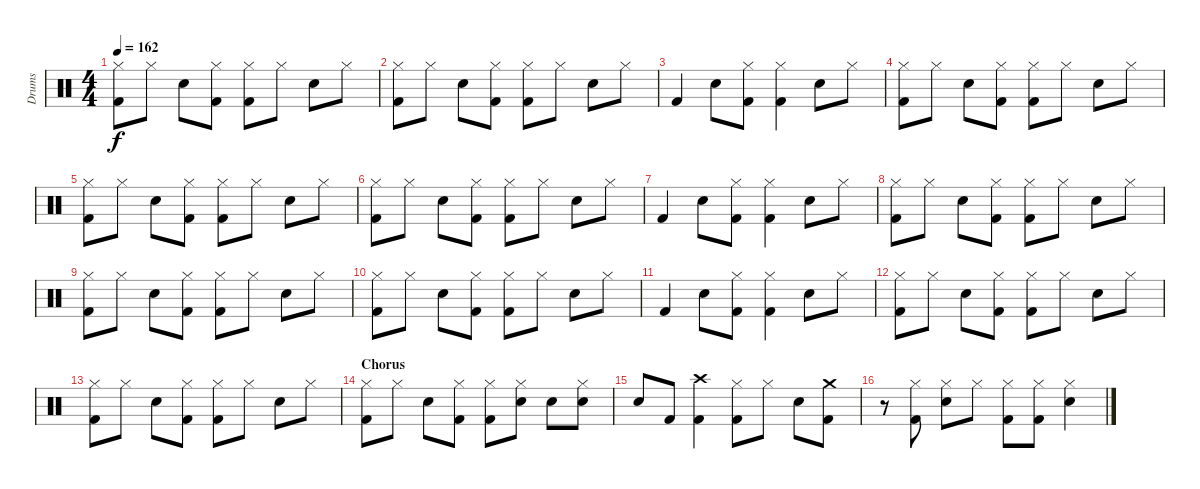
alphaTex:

\track ("Drums" "Drums") {instrument percussion}
\staff {score}
\articulation defaults
\ts (4 4)
\tempo 162
\clef neutral
\ks c
("Hi-Hat (closed)" "Kick (hit) 2").8{dy f} "Hi-Hat (closed)".8 "Snare (hit) 2".8 ("Hi-Hat (closed)" "Kick (hit) 2").8 ("Hi-Hat (closed)" "Kick (hit) 2").8 "Hi-Hat (closed)".8 "Snare (hit) 2".8 "Hi-Hat (closed)".8 |
("Hi-Hat (closed)" "Kick (hit) 2").8 "Hi-Hat (closed)".8 "Snare (hit) 2".8 ("Hi-Hat (closed)" "Kick (hit) 2").8 ("Hi-Hat (closed)" "Kick (hit) 2").8 "Hi-Hat (closed)".8 "Snare (hit) 2".8 "Hi-Hat (closed)".8 |
"Kick (hit) 2".4 "Snare (hit) 2".8 ("Hi-Hat (closed)" "Kick (hit) 2").8 ("Hi-Hat (closed)" "Kick (hit) 2").4 "Snare (hit) 2".8 "Hi-Hat (closed)".8 |
("Hi-Hat (closed)" "Kick (hit) 2").8 "Hi-Hat (closed)".8 "Snare (hit) 2".8 ("Hi-Hat (closed)" "Kick (hit) 2").8 ("Hi-Hat (closed)" "Kick (hit) 2").8 "Hi-Hat (closed)".8 "Snare (hit) 2".8 "Hi-Hat (closed)".8 |
("Hi-Hat (closed)" "Kick (hit) 2").8 "Hi-Hat (closed)".8 "Snare (hit) 2".8 ("Hi-Hat (closed)" "Kick (hit) 2").8 ("Hi-Hat (closed)" "Kick (hit) 2").8 "Hi-Hat (closed)".8 "Snare (hit) 2".8 "Hi-Hat (closed)".8 |
("Hi-Hat (closed)" "Kick (hit) 2").8 "Hi-Hat (closed)".8 "Snare (hit) 2".8 ("Hi-Hat (closed)" "Kick (hit) 2").8 ("Hi-Hat (closed)" "Kick (hit) 2").8 "Hi-Hat (closed)".8 "Snare (hit) 2".8 "Hi-Hat (closed)".8 |
"Kick (hit) 2".4 "Snare (hit) 2".8 ("Hi-Hat (closed)" "Kick (hit) 2").8 ("Hi-Hat (closed)" "Kick (hit) 2").4 "Snare (hit) 2".8 "Hi-Hat (closed)".8 |
("Hi-Hat (closed)" "Kick (hit) 2").8 "Hi-Hat (closed)".8 "Snare (hit) 2".8 ("Hi-Hat (closed)" "Kick (hit) 2").8 ("Hi-Hat (closed)" "Kick (hit) 2").8 "Hi-Hat (closed)".8 "Snare (hit) 2".8 "Hi-Hat (closed)".8 |
("Hi-Hat (closed)" "Kick (hit) 2").8 "Hi-Hat (closed)".8 "Snare (hit) 2".8 ("Hi-Hat (closed)" "Kick (hit) 2").8 ("Hi-Hat (closed)" "Kick (hit) 2").8 "Hi-Hat (closed)".8 "Snare (hit) 2".8 "Hi-Hat (closed)".8 |
("Hi-Hat (closed)" "Kick (hit) 2").8 "Hi-Hat (closed)".8 "Snare (hit) 2".8 ("Hi-Hat (closed)" "Kick (hit) 2").8 ("Hi-Hat (closed)" "Kick (hit) 2").8 "Hi-Hat (closed)".8 "Snare (hit) 2".8 "Hi-Hat (closed)".8 |
"Kick (hit) 2".4 "Snare (hit) 2".8 ("Hi-Hat (closed)" "Kick (hit) 2").8 ("Hi-Hat (closed)" "Kick (hit) 2").4 "Snare (hit) 2".8 "Hi-Hat (closed)".8 |
("Hi-Hat (closed)" "Kick (hit) 2").8 "Hi-Hat (closed)".8 "Snare (hit) 2".8 ("Hi-Hat (closed)" "Kick (hit) 2").8 ("Hi-Hat (closed)" "Kick (hit) 2").8 "Hi-Hat (closed)".8 "Snare (hit) 2".8 "Hi-Hat (closed)".8 |
("Hi-Hat (closed)" "Kick (hit) 2").8 "Hi-Hat (closed)".8 "Snare (hit) 2".8 ("Hi-Hat (closed)" "Kick (hit) 2").8 ("Hi-Hat (closed)" "Kick (hit) 2").8 "Hi-Hat (closed)".8 "Snare (hit) 2".8 "Hi-Hat (closed)".8 |
\section ("" "Chorus")
("Hi-Hat (closed)" "Kick (hit) 2").8 "Hi-Hat (closed)".8 "Snare (hit) 2".8 ("Hi-Hat (closed)" "Kick (hit) 2").8 ("Hi-Hat (closed)" "Kick (hit) 2").8 ("Hi-Hat (closed)" "Snare (hit) 2").8 "Snare (hit) 2".8 ("Hi-Hat (closed)" "Snare (hit) 2").8 |
"Snare (hit) 2".8 "Kick (hit) 2".8 ("Crash high (hit)" "Kick (hit) 2").4 ("Hi-Hat (closed)" "Kick (hit) 2").8 "Hi-Hat (closed)".8 "Snare (hit) 2".8 ("Crash medium (hit)" "Kick (hit) 2").8 |
r.8 ("Hi-Hat (closed)" "Kick (hit) 2").8 ("Hi-Hat (closed)" "Snare (hit) 2").8 "Hi-Hat (closed)".8 ("Hi-Hat (closed)" "Kick (hit) 2").8 ("Hi-Hat (closed)" "Kick (hit) 2").8 ("Hi-Hat (closed)" "Snare (hit) 2").4
